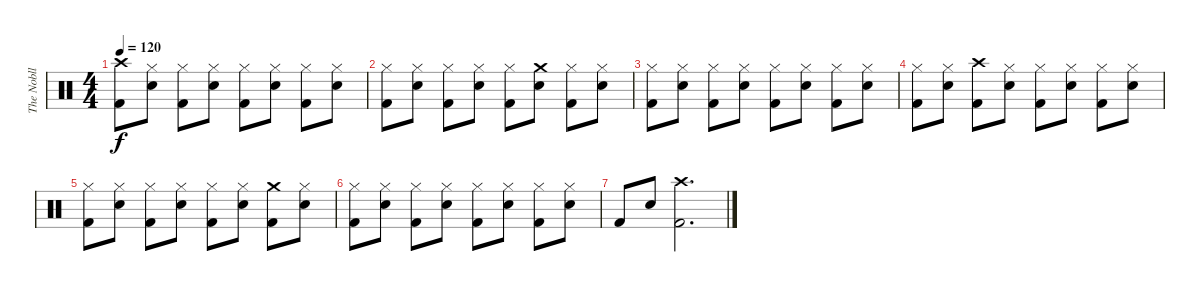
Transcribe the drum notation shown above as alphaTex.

\track ("The Nobll" "The Nobll") {instrument percussion}
\staff {score}
\articulation defaults
\ts (4 4)
\tempo 120
\clef neutral
\ks c
("Crash high (hit)" "Kick (hit) 2").8{dy f} ("Hi-Hat (closed)" "Snare (hit) 2").8 ("Hi-Hat (closed)" "Kick (hit) 2").8 ("Hi-Hat (closed)" "Snare (hit) 2").8 ("Hi-Hat (closed)" "Kick (hit) 2").8 ("Hi-Hat (closed)" "Snare (hit) 2").8 ("Hi-Hat (closed)" "Kick (hit) 2").8 ("Hi-Hat (closed)" "Snare (hit) 2").8 |
("Hi-Hat (closed)" "Kick (hit) 2").8 ("Hi-Hat (closed)" "Snare (hit) 2").8 ("Hi-Hat (closed)" "Kick (hit) 2").8 ("Hi-Hat (closed)" "Snare (hit) 2").8 ("Hi-Hat (closed)" "Kick (hit) 2").8 ("Crash medium (hit)" "Snare (hit) 2").8 ("Hi-Hat (closed)" "Kick (hit) 2").8 ("Hi-Hat (closed)" "Snare (hit) 2").8 |
("Hi-Hat (closed)" "Kick (hit) 2").8 ("Hi-Hat (closed)" "Snare (hit) 2").8 ("Hi-Hat (closed)" "Kick (hit) 2").8 ("Hi-Hat (closed)" "Snare (hit) 2").8 ("Hi-Hat (closed)" "Kick (hit) 2").8 ("Hi-Hat (closed)" "Snare (hit) 2").8 ("Hi-Hat (closed)" "Kick (hit) 2").8 ("Hi-Hat (closed)" "Snare (hit) 2").8 |
("Hi-Hat (closed)" "Kick (hit) 2").8 ("Hi-Hat (closed)" "Snare (hit) 2").8 ("Crash high (hit)" "Kick (hit) 2").8 ("Hi-Hat (closed)" "Snare (hit) 2").8 ("Hi-Hat (closed)" "Kick (hit) 2").8 ("Hi-Hat (closed)" "Snare (hit) 2").8 ("Hi-Hat (closed)" "Kick (hit) 2").8 ("Hi-Hat (closed)" "Snare (hit) 2").8 |
("Hi-Hat (closed)" "Kick (hit) 2").8 ("Hi-Hat (closed)" "Snare (hit) 2").8 ("Hi-Hat (closed)" "Kick (hit) 2").8 ("Hi-Hat (closed)" "Snare (hit) 2").8 ("Hi-Hat (closed)" "Kick (hit) 2").8 ("Hi-Hat (closed)" "Snare (hit) 2").8 ("Crash medium (hit)" "Kick (hit) 2").8 ("Hi-Hat (closed)" "Snare (hit) 2").8 |
("Hi-Hat (closed)" "Kick (hit) 2").8 ("Hi-Hat (closed)" "Snare (hit) 2").8 ("Hi-Hat (closed)" "Kick (hit) 2").8 ("Hi-Hat (closed)" "Snare (hit) 2").8 ("Hi-Hat (closed)" "Kick (hit) 2").8 ("Hi-Hat (closed)" "Snare (hit) 2").8 ("Hi-Hat (closed)" "Kick (hit) 2").8 ("Hi-Hat (closed)" "Snare (hit) 2").8 |
"Kick (hit) 2".8 "Snare (hit) 2".8 ("Crash high (hit)" "Kick (hit) 2").2{d}
